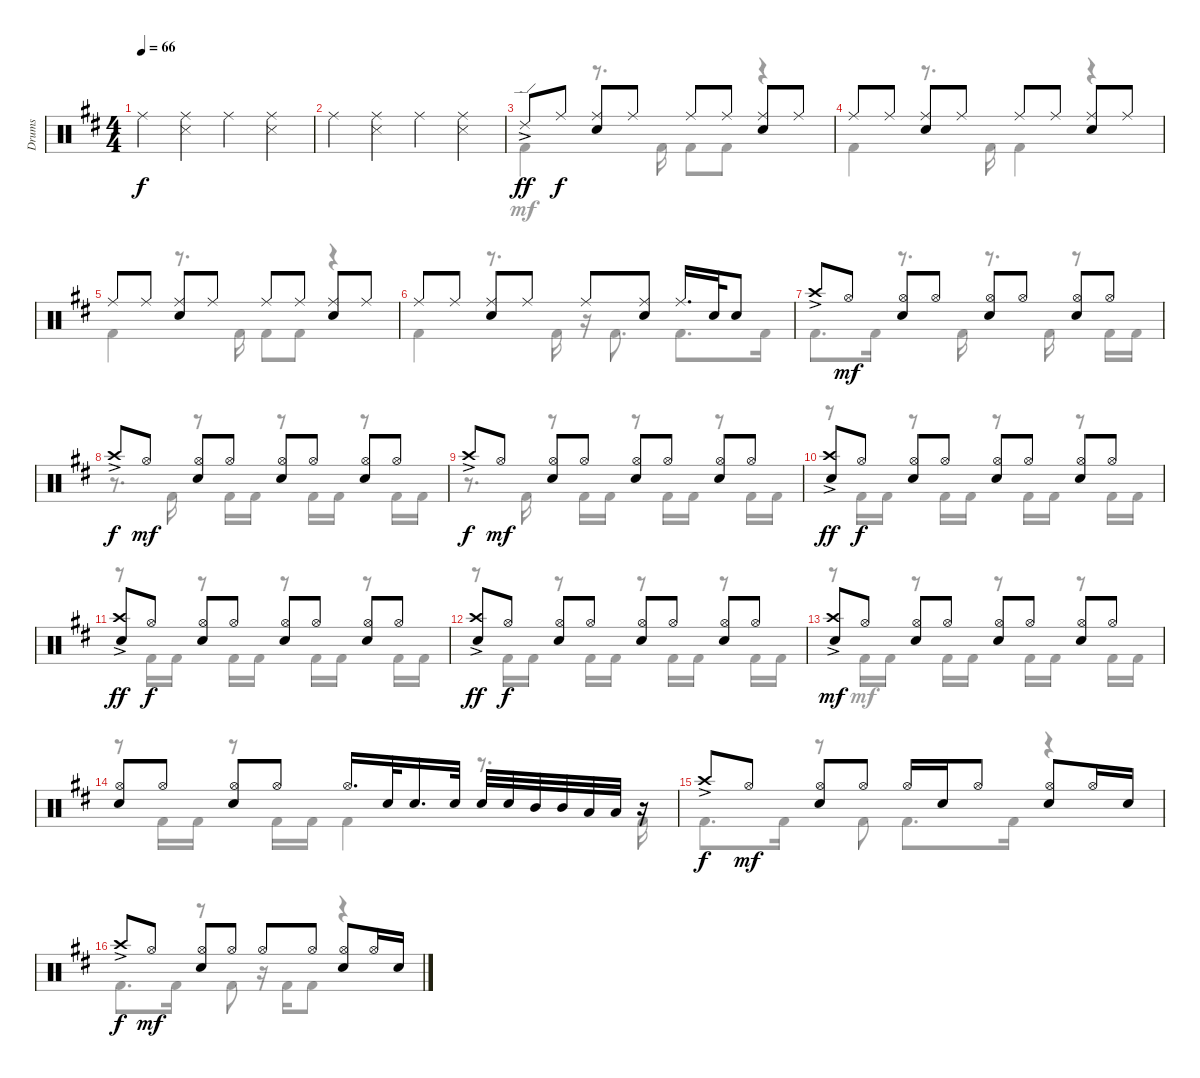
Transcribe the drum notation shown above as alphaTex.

\track ("Drums" "Drums") {instrument percussion}
\staff {score}
\articulation defaults
\voice
\ts (4 4)
\tempo 66
\clef neutral
\ks d "Ride (middle)".4{dy f}
("Ride (middle)" "Snare (side stick) 3").4 "Ride (middle)".4 ("Ride (middle)" "Snare (side stick) 3").4 |
"Ride (middle)".4 ("Ride (middle)" "Snare (side stick) 3").4 "Ride (middle)".4 ("Ride (middle)" "Snare (side stick) 3").4 |
"Ride (edge) 2"{ac}.8{dy ff} "Ride (middle)".8{dy f} ("Ride (middle)" "Electric Snare (hit)").8 "Ride (middle)".8 "Ride (middle)".8 "Ride (middle)".8 ("Ride (middle)" "Electric Snare (hit)").8 "Ride (middle)".8 |
"Ride (middle)".8 "Ride (middle)".8 ("Ride (middle)" "Electric Snare (hit)").8 "Ride (middle)".8 "Ride (middle)".8 "Ride (middle)".8 ("Ride (middle)" "Electric Snare (hit)").8 "Ride (middle)".8 |
"Ride (middle)".8 "Ride (middle)".8 ("Ride (middle)" "Electric Snare (hit)").8 "Ride (middle)".8 "Ride (middle)".8 "Ride (middle)".8 ("Ride (middle)" "Electric Snare (hit)").8 "Ride (middle)".8 |
"Ride (middle)".8 "Ride (middle)".8 ("Ride (middle)" "Electric Snare (hit)").8 "Ride (middle)".8 "Ride (middle)".8 ("Ride (middle)" "Electric Snare (hit)").8 "Ride (middle)".16{d} "Electric Snare (hit)".32 "Electric Snare (hit)".8 |
"Crash high (hit)"{ac}.8 "Hi-Hat (open)".8{dy mf} ("Hi-Hat (open)" "Electric Snare (hit)").8 "Hi-Hat (open)".8 ("Hi-Hat (open)" "Electric Snare (hit)").8 "Hi-Hat (open)".8 ("Hi-Hat (open)" "Electric Snare (hit)").8 "Hi-Hat (open)".8 |
"Crash high (hit)"{ac}.8{dy f} "Hi-Hat (open)".8{dy mf} ("Hi-Hat (open)" "Electric Snare (hit)").8 "Hi-Hat (open)".8 ("Hi-Hat (open)" "Electric Snare (hit)").8 "Hi-Hat (open)".8 ("Hi-Hat (open)" "Electric Snare (hit)").8 "Hi-Hat (open)".8 |
"Crash high (hit)"{ac}.8{dy f} "Hi-Hat (open)".8{dy mf} ("Hi-Hat (open)" "Electric Snare (hit)").8 "Hi-Hat (open)".8 ("Hi-Hat (open)" "Electric Snare (hit)").8 "Hi-Hat (open)".8 ("Hi-Hat (open)" "Electric Snare (hit)").8 "Hi-Hat (open)".8 |
("Crash high (hit)"{ac} "Electric Snare (hit)").8{dy ff} "Hi-Hat (open)".8{dy f} ("Hi-Hat (open)" "Electric Snare (hit)").8 "Hi-Hat (open)".8 ("Hi-Hat (open)" "Electric Snare (hit)").8 "Hi-Hat (open)".8 ("Hi-Hat (open)" "Electric Snare (hit)").8 "Hi-Hat (open)".8 |
("Crash high (hit)"{ac} "Electric Snare (hit)").8{dy ff} "Hi-Hat (open)".8{dy f} ("Hi-Hat (open)" "Electric Snare (hit)").8 "Hi-Hat (open)".8 ("Hi-Hat (open)" "Electric Snare (hit)").8 "Hi-Hat (open)".8 ("Hi-Hat (open)" "Electric Snare (hit)").8 "Hi-Hat (open)".8 |
("Crash high (hit)"{ac} "Electric Snare (hit)").8{dy ff} "Hi-Hat (open)".8{dy f} ("Hi-Hat (open)" "Electric Snare (hit)").8 "Hi-Hat (open)".8 ("Hi-Hat (open)" "Electric Snare (hit)").8 "Hi-Hat (open)".8 ("Hi-Hat (open)" "Electric Snare (hit)").8 "Hi-Hat (open)".8 |
("Crash high (hit)"{ac} "Electric Snare (hit)").8{dy mf} "Hi-Hat (open)".8 ("Hi-Hat (open)" "Electric Snare (hit)").8 "Hi-Hat (open)".8 ("Hi-Hat (open)" "Electric Snare (hit)").8 "Hi-Hat (open)".8 ("Hi-Hat (open)" "Electric Snare (hit)").8 "Hi-Hat (open)".8 |
("Hi-Hat (open)" "Electric Snare (hit)").8 "Hi-Hat (open)".8 ("Hi-Hat (open)" "Electric Snare (hit)").8 "Hi-Hat (open)".8 "Hi-Hat (open)".16{d} "Electric Snare (hit)".32 "Electric Snare (hit)".16{d} "Electric Snare (hit)".32 "Electric Snare (hit)".32 "Electric Snare (hit)".32 "Mid Tom (hit)".32 "Mid Tom (hit)".32 "Low Tom (hit)".32 "Low Tom (hit)".32 r.16 |
"Crash high (hit)"{ac}.8{dy f} "Hi-Hat (open)".8{dy mf} ("Hi-Hat (open)" "Electric Snare (hit)").8 "Hi-Hat (open)".8 "Hi-Hat (open)".16 "Electric Snare (hit)".16 "Hi-Hat (open)".8 ("Hi-Hat (open)" "Electric Snare (hit)").8 "Hi-Hat (open)".16 "Electric Snare (hit)".16 |
"Crash high (hit)"{ac}.8{dy f} "Hi-Hat (open)".8{dy mf} ("Hi-Hat (open)" "Electric Snare (hit)").8 "Hi-Hat (open)".8 "Hi-Hat (open)".8 "Hi-Hat (open)".8 ("Hi-Hat (open)" "Electric Snare (hit)").8 "Hi-Hat (open)".16 "Electric Snare (hit)".16
\voice
\clef neutral
\ottava regular
\simile none
\ks d
|
|
"Kick (hit) 2".4 r.8{d} "Kick (hit) 2".16 "Kick (hit) 2".8 "Kick (hit) 2".8 r.4 |
"Kick (hit) 2".4 r.8{d} "Kick (hit) 2".16 "Kick (hit) 2".4 r.4 |
"Kick (hit) 2".4 r.8{d} "Kick (hit) 2".16 "Kick (hit) 2".8 "Kick (hit) 2".8 r.4 |
"Kick (hit) 2".4 r.8{d} "Kick (hit) 2".16 r.16 "Kick (hit) 2".8{d} "Kick (hit) 2".8{d} "Kick (hit) 2".16 |
"Kick (hit) 2".8{d dy mf} "Kick (hit) 2".16 r.8{d} "Kick (hit) 2".16 r.8{d} "Kick (hit) 2".16 r.8 "Kick (hit) 2".16 "Kick (hit) 2".16 |
r.8{d} "Kick (hit) 2".16 r.8 "Kick (hit) 2".16 "Kick (hit) 2".16 r.8 "Kick (hit) 2".16 "Kick (hit) 2".16 r.8 "Kick (hit) 2".16 "Kick (hit) 2".16 |
r.8{d} "Kick (hit) 2".16 r.8 "Kick (hit) 2".16 "Kick (hit) 2".16 r.8 "Kick (hit) 2".16 "Kick (hit) 2".16 r.8 "Kick (hit) 2".16 "Kick (hit) 2".16 |
r.8 "Kick (hit) 2".16{dy f} "Kick (hit) 2".16 r.8 "Kick (hit) 2".16 "Kick (hit) 2".16 r.8 "Kick (hit) 2".16 "Kick (hit) 2".16 r.8 "Kick (hit) 2".16 "Kick (hit) 2".16 |
r.8 "Kick (hit) 2".16 "Kick (hit) 2".16 r.8 "Kick (hit) 2".16 "Kick (hit) 2".16 r.8 "Kick (hit) 2".16 "Kick (hit) 2".16 r.8 "Kick (hit) 2".16 "Kick (hit) 2".16 |
r.8 "Kick (hit) 2".16 "Kick (hit) 2".16 r.8 "Kick (hit) 2".16 "Kick (hit) 2".16 r.8 "Kick (hit) 2".16 "Kick (hit) 2".16 r.8 "Kick (hit) 2".16 "Kick (hit) 2".16 |
r.8 "Kick (hit) 2".16{dy mf} "Kick (hit) 2".16 r.8 "Kick (hit) 2".16 "Kick (hit) 2".16 r.8 "Kick (hit) 2".16 "Kick (hit) 2".16 r.8 "Kick (hit) 2".16 "Kick (hit) 2".16 |
r.8 "Kick (hit) 2".16 "Kick (hit) 2".16 r.8 "Kick (hit) 2".16 "Kick (hit) 2".16 "Kick (hit) 2".4 r.8{d} "Kick (hit) 2".16 |
"Kick (hit) 2".8{d} "Kick (hit) 2".16 r.8 "Kick (hit) 2".8 "Kick (hit) 2".8{d} "Kick (hit) 2".16 r.4 |
"Kick (hit) 2".8{d} "Kick (hit) 2".16 r.8 "Kick (hit) 2".8 r.16 "Kick (hit) 2".16 "Kick (hit) 2".8 r.4
